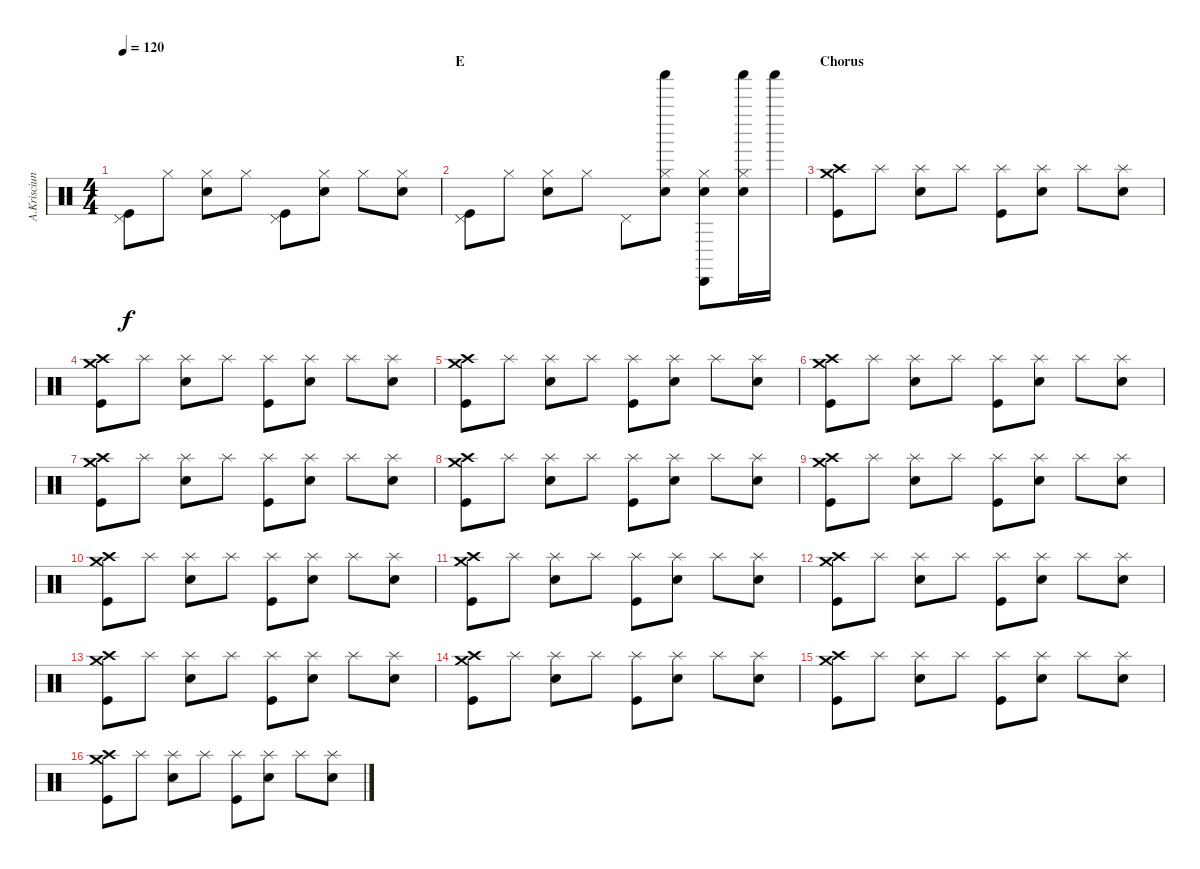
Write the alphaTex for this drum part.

\track ("A.Krisciunas" "A.Krisciun") {instrument percussion}
\staff {score}
\articulation defaults
\ts (4 4)
\tempo 120
\clef neutral
\ks c
("Pedal Hi-Hat (hit)" "Kick (hit)").8{dy f} "Hi-Hat (closed)".8 ("Hi-Hat (closed)" "Electric Snare (hit)").8 "Hi-Hat (closed)".8 ("Pedal Hi-Hat (hit)" "Kick (hit)").8 ("Hi-Hat (closed)" "Electric Snare (hit)").8 "Hi-Hat (closed)".8 ("Hi-Hat (closed)" "Electric Snare (hit)").8 |
\section ("" "E")
("Pedal Hi-Hat (hit)" "Kick (hit)").8 "Hi-Hat (closed)".8 ("Hi-Hat (closed)" "Electric Snare (hit)").8 "Hi-Hat (closed)".8 "Pedal Hi-Hat (hit)".8 ("Shaker (hit)" "Hi-Hat (closed)" "Electric Snare (hit)").8 ("Cabasa (hit)" "Hi-Hat (closed)" "Electric Snare (hit)").8 ("Shaker (hit)" "Hi-Hat (closed)" "Electric Snare (hit)").16 "Shaker (hit)".16 |
\section ("" "Chorus")
("Crash medium (hit)" "Crash high (hit)" "Kick (hit)").8 "Splash (hit)".8 ("Splash (hit)" "Electric Snare (hit)").8 "Splash (hit)".8 ("Splash (hit)" "Kick (hit)").8 ("Splash (hit)" "Electric Snare (hit)").8 "Splash (hit)".8 ("Splash (hit)" "Electric Snare (hit)").8 |
("Crash medium (hit)" "Crash high (hit)" "Kick (hit)").8 "Splash (hit)".8 ("Splash (hit)" "Electric Snare (hit)").8 "Splash (hit)".8 ("Splash (hit)" "Kick (hit)").8 ("Splash (hit)" "Electric Snare (hit)").8 "Splash (hit)".8 ("Splash (hit)" "Electric Snare (hit)").8 |
("Crash medium (hit)" "Crash high (hit)" "Kick (hit)").8 "Splash (hit)".8 ("Splash (hit)" "Electric Snare (hit)").8 "Splash (hit)".8 ("Splash (hit)" "Kick (hit)").8 ("Splash (hit)" "Electric Snare (hit)").8 "Splash (hit)".8 ("Splash (hit)" "Electric Snare (hit)").8 |
("Crash medium (hit)" "Crash high (hit)" "Kick (hit)").8 "Splash (hit)".8 ("Splash (hit)" "Electric Snare (hit)").8 "Splash (hit)".8 ("Splash (hit)" "Kick (hit)").8 ("Splash (hit)" "Electric Snare (hit)").8 "Splash (hit)".8 ("Splash (hit)" "Electric Snare (hit)").8 |
("Crash medium (hit)" "Crash high (hit)" "Kick (hit)").8 "Splash (hit)".8 ("Splash (hit)" "Electric Snare (hit)").8 "Splash (hit)".8 ("Splash (hit)" "Kick (hit)").8 ("Splash (hit)" "Electric Snare (hit)").8 "Splash (hit)".8 ("Splash (hit)" "Electric Snare (hit)").8 |
("Crash medium (hit)" "Crash high (hit)" "Kick (hit)").8 "Splash (hit)".8 ("Splash (hit)" "Electric Snare (hit)").8 "Splash (hit)".8 ("Splash (hit)" "Kick (hit)").8 ("Splash (hit)" "Electric Snare (hit)").8 "Splash (hit)".8 ("Splash (hit)" "Electric Snare (hit)").8 |
("Crash medium (hit)" "Crash high (hit)" "Kick (hit)").8 "Splash (hit)".8 ("Splash (hit)" "Electric Snare (hit)").8 "Splash (hit)".8 ("Splash (hit)" "Kick (hit)").8 ("Splash (hit)" "Electric Snare (hit)").8 "Splash (hit)".8 ("Splash (hit)" "Electric Snare (hit)").8 |
("Crash medium (hit)" "Crash high (hit)" "Kick (hit)").8 "Splash (hit)".8 ("Splash (hit)" "Electric Snare (hit)").8 "Splash (hit)".8 ("Splash (hit)" "Kick (hit)").8 ("Splash (hit)" "Electric Snare (hit)").8 "Splash (hit)".8 ("Splash (hit)" "Electric Snare (hit)").8 |
("Crash medium (hit)" "Crash high (hit)" "Kick (hit)").8 "Splash (hit)".8 ("Splash (hit)" "Electric Snare (hit)").8 "Splash (hit)".8 ("Splash (hit)" "Kick (hit)").8 ("Splash (hit)" "Electric Snare (hit)").8 "Splash (hit)".8 ("Splash (hit)" "Electric Snare (hit)").8 |
("Crash medium (hit)" "Crash high (hit)" "Kick (hit)").8 "Splash (hit)".8 ("Splash (hit)" "Electric Snare (hit)").8 "Splash (hit)".8 ("Splash (hit)" "Kick (hit)").8 ("Splash (hit)" "Electric Snare (hit)").8 "Splash (hit)".8 ("Splash (hit)" "Electric Snare (hit)").8 |
("Crash medium (hit)" "Crash high (hit)" "Kick (hit)").8 "Splash (hit)".8 ("Splash (hit)" "Electric Snare (hit)").8 "Splash (hit)".8 ("Splash (hit)" "Kick (hit)").8 ("Splash (hit)" "Electric Snare (hit)").8 "Splash (hit)".8 ("Splash (hit)" "Electric Snare (hit)").8 |
("Crash medium (hit)" "Crash high (hit)" "Kick (hit)").8 "Splash (hit)".8 ("Splash (hit)" "Electric Snare (hit)").8 "Splash (hit)".8 ("Splash (hit)" "Kick (hit)").8 ("Splash (hit)" "Electric Snare (hit)").8 "Splash (hit)".8 ("Splash (hit)" "Electric Snare (hit)").8 |
("Crash medium (hit)" "Crash high (hit)" "Kick (hit)").8 "Splash (hit)".8 ("Splash (hit)" "Electric Snare (hit)").8 "Splash (hit)".8 ("Splash (hit)" "Kick (hit)").8 ("Splash (hit)" "Electric Snare (hit)").8 "Splash (hit)".8 ("Splash (hit)" "Electric Snare (hit)").8 |
("Crash medium (hit)" "Crash high (hit)" "Kick (hit)").8 "Splash (hit)".8 ("Splash (hit)" "Electric Snare (hit)").8 "Splash (hit)".8 ("Splash (hit)" "Kick (hit)").8 ("Splash (hit)" "Electric Snare (hit)").8 "Splash (hit)".8 ("Splash (hit)" "Electric Snare (hit)").8
